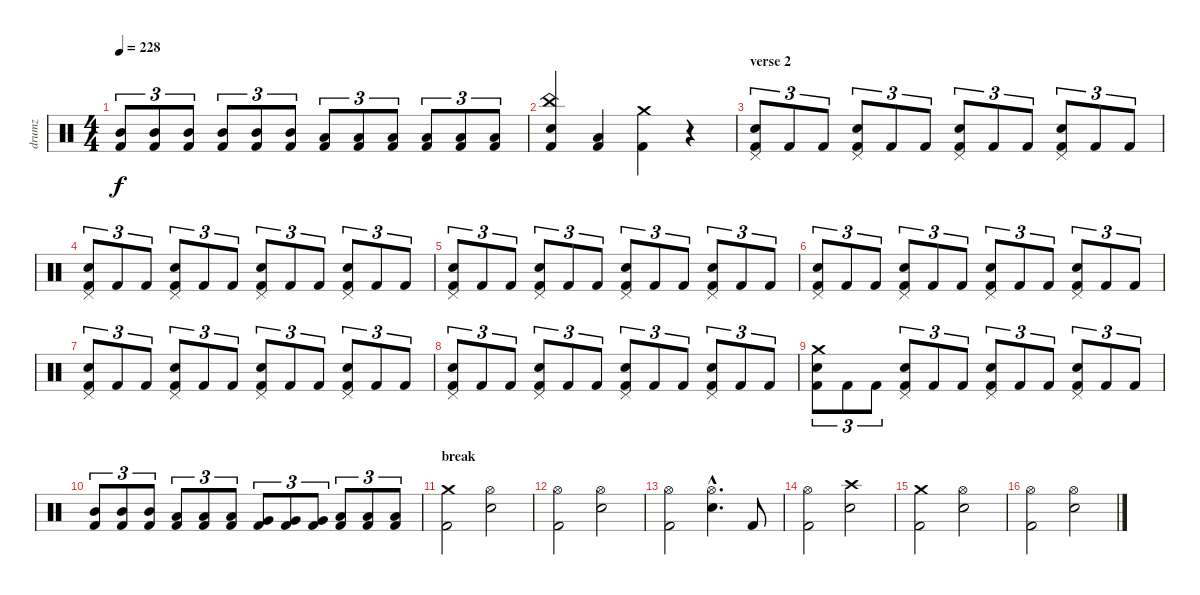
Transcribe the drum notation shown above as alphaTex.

\track ("drumz" "drumz") {instrument percussion}
\staff {score}
\articulation defaults
\ts (4 4)
\tempo 228
\clef neutral
\ks c
("Mid Tom (hit)" "Kick (hit) 2").8{tu (3 2) dy f} ("Mid Tom (hit)" "Kick (hit) 2").8{tu (3 2)} ("Mid Tom (hit)" "Kick (hit) 2").8{tu (3 2)} ("Mid Tom (hit)" "Kick (hit) 2").8{tu (3 2)} ("Mid Tom (hit)" "Kick (hit) 2").8{tu (3 2)} ("Mid Tom (hit)" "Kick (hit) 2").8{tu (3 2)} ("Low Tom (hit)" "Kick (hit) 2").8{tu (3 2)} ("Low Tom (hit)" "Kick (hit) 2").8{tu (3 2)} ("Low Tom (hit)" "Kick (hit) 2").8{tu (3 2)} ("Low Tom (hit)" "Kick (hit) 2").8{tu (3 2)} ("Low Tom (hit)" "Kick (hit) 2").8{tu (3 2)} ("Low Tom (hit)" "Kick (hit) 2").8{tu (3 2)} |
("China (hit)" "Snare (hit) 2" "Kick (hit) 2").4 ("Low Floor Tom (hit)" "Kick (hit) 2").4 ("Crash medium (hit)" "Kick (hit) 2").4 r.4 |
\section ("" "verse 2")
("Pedal Hi-Hat (hit)" "Snare (hit) 2" "Kick (hit) 2").8{tu (3 2)} "Kick (hit) 2".8{tu (3 2)} "Kick (hit) 2".8{tu (3 2)} ("Pedal Hi-Hat (hit)" "Snare (hit) 2" "Kick (hit) 2").8{tu (3 2)} "Kick (hit) 2".8{tu (3 2)} "Kick (hit) 2".8{tu (3 2)} ("Pedal Hi-Hat (hit)" "Snare (hit) 2" "Kick (hit) 2").8{tu (3 2)} "Kick (hit) 2".8{tu (3 2)} "Kick (hit) 2".8{tu (3 2)} ("Pedal Hi-Hat (hit)" "Snare (hit) 2" "Kick (hit) 2").8{tu (3 2)} "Kick (hit) 2".8{tu (3 2)} "Kick (hit) 2".8{tu (3 2)} |
("Pedal Hi-Hat (hit)" "Snare (hit) 2" "Kick (hit) 2").8{tu (3 2)} "Kick (hit) 2".8{tu (3 2)} "Kick (hit) 2".8{tu (3 2)} ("Pedal Hi-Hat (hit)" "Snare (hit) 2" "Kick (hit) 2").8{tu (3 2)} "Kick (hit) 2".8{tu (3 2)} "Kick (hit) 2".8{tu (3 2)} ("Pedal Hi-Hat (hit)" "Snare (hit) 2" "Kick (hit) 2").8{tu (3 2)} "Kick (hit) 2".8{tu (3 2)} "Kick (hit) 2".8{tu (3 2)} ("Pedal Hi-Hat (hit)" "Snare (hit) 2" "Kick (hit) 2").8{tu (3 2)} "Kick (hit) 2".8{tu (3 2)} "Kick (hit) 2".8{tu (3 2)} |
("Pedal Hi-Hat (hit)" "Snare (hit) 2" "Kick (hit) 2").8{tu (3 2)} "Kick (hit) 2".8{tu (3 2)} "Kick (hit) 2".8{tu (3 2)} ("Pedal Hi-Hat (hit)" "Snare (hit) 2" "Kick (hit) 2").8{tu (3 2)} "Kick (hit) 2".8{tu (3 2)} "Kick (hit) 2".8{tu (3 2)} ("Pedal Hi-Hat (hit)" "Snare (hit) 2" "Kick (hit) 2").8{tu (3 2)} "Kick (hit) 2".8{tu (3 2)} "Kick (hit) 2".8{tu (3 2)} ("Pedal Hi-Hat (hit)" "Snare (hit) 2" "Kick (hit) 2").8{tu (3 2)} "Kick (hit) 2".8{tu (3 2)} "Kick (hit) 2".8{tu (3 2)} |
("Pedal Hi-Hat (hit)" "Snare (hit) 2" "Kick (hit) 2").8{tu (3 2)} "Kick (hit) 2".8{tu (3 2)} "Kick (hit) 2".8{tu (3 2)} ("Pedal Hi-Hat (hit)" "Snare (hit) 2" "Kick (hit) 2").8{tu (3 2)} "Kick (hit) 2".8{tu (3 2)} "Kick (hit) 2".8{tu (3 2)} ("Pedal Hi-Hat (hit)" "Snare (hit) 2" "Kick (hit) 2").8{tu (3 2)} "Kick (hit) 2".8{tu (3 2)} "Kick (hit) 2".8{tu (3 2)} ("Pedal Hi-Hat (hit)" "Snare (hit) 2" "Kick (hit) 2").8{tu (3 2)} "Kick (hit) 2".8{tu (3 2)} "Kick (hit) 2".8{tu (3 2)} |
("Pedal Hi-Hat (hit)" "Snare (hit) 2" "Kick (hit) 2").8{tu (3 2)} "Kick (hit) 2".8{tu (3 2)} "Kick (hit) 2".8{tu (3 2)} ("Pedal Hi-Hat (hit)" "Snare (hit) 2" "Kick (hit) 2").8{tu (3 2)} "Kick (hit) 2".8{tu (3 2)} "Kick (hit) 2".8{tu (3 2)} ("Pedal Hi-Hat (hit)" "Snare (hit) 2" "Kick (hit) 2").8{tu (3 2)} "Kick (hit) 2".8{tu (3 2)} "Kick (hit) 2".8{tu (3 2)} ("Pedal Hi-Hat (hit)" "Snare (hit) 2" "Kick (hit) 2").8{tu (3 2)} "Kick (hit) 2".8{tu (3 2)} "Kick (hit) 2".8{tu (3 2)} |
("Pedal Hi-Hat (hit)" "Snare (hit) 2" "Kick (hit) 2").8{tu (3 2)} "Kick (hit) 2".8{tu (3 2)} "Kick (hit) 2".8{tu (3 2)} ("Pedal Hi-Hat (hit)" "Snare (hit) 2" "Kick (hit) 2").8{tu (3 2)} "Kick (hit) 2".8{tu (3 2)} "Kick (hit) 2".8{tu (3 2)} ("Pedal Hi-Hat (hit)" "Snare (hit) 2" "Kick (hit) 2").8{tu (3 2)} "Kick (hit) 2".8{tu (3 2)} "Kick (hit) 2".8{tu (3 2)} ("Pedal Hi-Hat (hit)" "Snare (hit) 2" "Kick (hit) 2").8{tu (3 2)} "Kick (hit) 2".8{tu (3 2)} "Kick (hit) 2".8{tu (3 2)} |
("Crash medium (hit)" "Snare (hit) 2" "Kick (hit) 2").8{tu (3 2)} "Kick (hit) 2".8{tu (3 2)} "Kick (hit) 2".8{tu (3 2)} ("Pedal Hi-Hat (hit)" "Snare (hit) 2" "Kick (hit) 2").8{tu (3 2)} "Kick (hit) 2".8{tu (3 2)} "Kick (hit) 2".8{tu (3 2)} ("Pedal Hi-Hat (hit)" "Snare (hit) 2" "Kick (hit) 2").8{tu (3 2)} "Kick (hit) 2".8{tu (3 2)} "Kick (hit) 2".8{tu (3 2)} ("Pedal Hi-Hat (hit)" "Snare (hit) 2" "Kick (hit) 2").8{tu (3 2)} "Kick (hit) 2".8{tu (3 2)} "Kick (hit) 2".8{tu (3 2)} |
("Mid Tom (hit)" "Kick (hit) 2").8{tu (3 2)} ("Mid Tom (hit)" "Kick (hit) 2").8{tu (3 2)} ("Mid Tom (hit)" "Kick (hit) 2").8{tu (3 2)} ("Low Tom (hit)" "Kick (hit) 2").8{tu (3 2)} ("Low Tom (hit)" "Kick (hit) 2").8{tu (3 2)} ("Low Tom (hit)" "Kick (hit) 2").8{tu (3 2)} ("Very Low Tom (hit)" "Kick (hit) 2").8{tu (3 2)} ("Very Low Tom (hit)" "Kick (hit) 2").8{tu (3 2)} ("Very Low Tom (hit)" "Kick (hit) 2").8{tu (3 2)} ("Low Floor Tom (hit)" "Kick (hit) 2").8{tu (3 2)} ("Low Floor Tom (hit)" "Kick (hit) 2").8{tu (3 2)} ("Low Floor Tom (hit)" "Kick (hit) 2").8{tu (3 2)} |
\section ("" "break")
("Crash medium (hit)" "Kick (hit) 2").2 ("Hi-Hat (open)" "Snare (hit) 2").2 |
("Hi-Hat (open)" "Kick (hit) 2").2 ("Hi-Hat (open)" "Snare (hit) 2").2 |
("Hi-Hat (open)" "Kick (hit) 2").2 ("Hi-Hat (open)"{hac} "Snare (hit) 2"{hac}).4{d} "Kick (hit) 2".8 |
("Hi-Hat (open)" "Kick (hit) 2").2 ("Crash high (hit)" "Snare (hit) 2").2 |
("Crash medium (hit)" "Kick (hit) 2").2 ("Hi-Hat (open)" "Snare (hit) 2").2 |
("Hi-Hat (open)" "Kick (hit) 2").2 ("Hi-Hat (open)" "Snare (hit) 2").2
